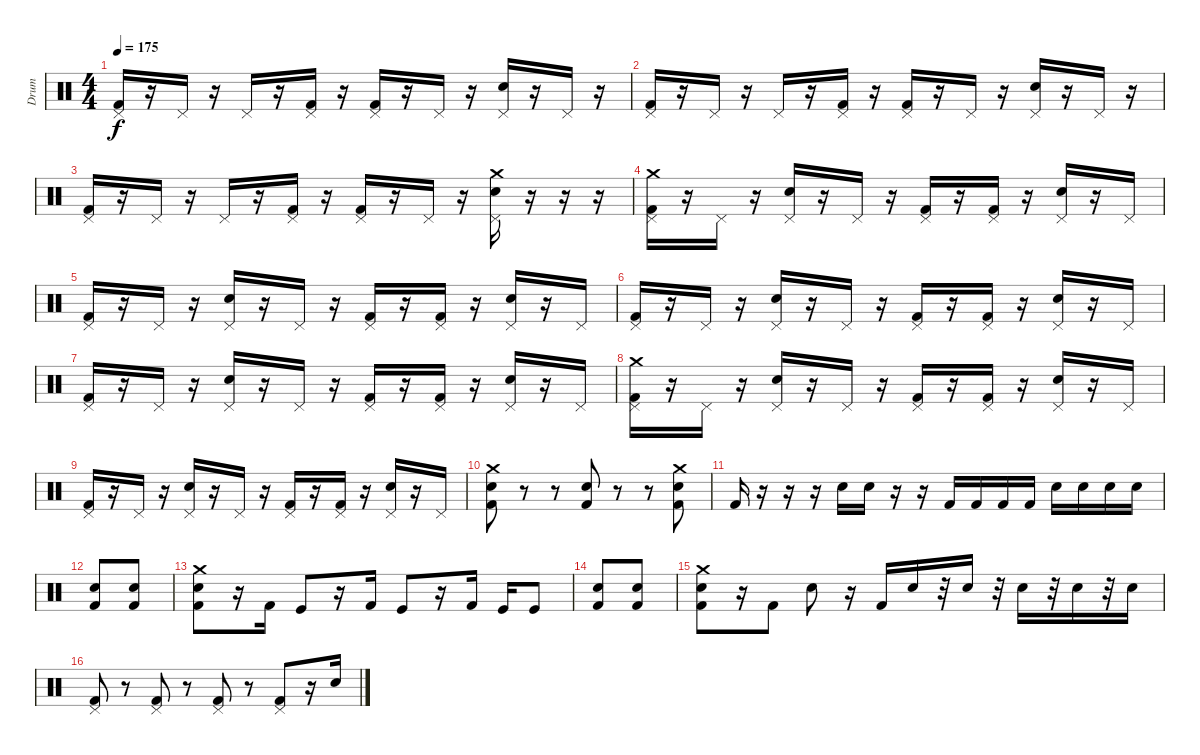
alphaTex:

\track ("Drum" "Drum") {instrument percussion}
\staff {score}
\articulation defaults
\ts (4 4)
\tempo 175
\clef neutral
\ks c
("Pedal Hi-Hat (hit)" "Kick (hit) 2").16{dy f} r.16 "Pedal Hi-Hat (hit)".16 r.16 "Pedal Hi-Hat (hit)".16 r.16 ("Pedal Hi-Hat (hit)" "Kick (hit) 2").16 r.16 ("Pedal Hi-Hat (hit)" "Kick (hit) 2").16 r.16 "Pedal Hi-Hat (hit)".16 r.16 ("Pedal Hi-Hat (hit)" "Electric Snare (hit)").16 r.16 "Pedal Hi-Hat (hit)".16 r.16 |
("Pedal Hi-Hat (hit)" "Kick (hit) 2").16 r.16 "Pedal Hi-Hat (hit)".16 r.16 "Pedal Hi-Hat (hit)".16 r.16 ("Pedal Hi-Hat (hit)" "Kick (hit) 2").16 r.16 ("Pedal Hi-Hat (hit)" "Kick (hit) 2").16 r.16 "Pedal Hi-Hat (hit)".16 r.16 ("Pedal Hi-Hat (hit)" "Electric Snare (hit)").16 r.16 "Pedal Hi-Hat (hit)".16 r.16 |
("Pedal Hi-Hat (hit)" "Kick (hit) 2").16 r.16 "Pedal Hi-Hat (hit)".16 r.16 "Pedal Hi-Hat (hit)".16 r.16 ("Pedal Hi-Hat (hit)" "Kick (hit) 2").16 r.16 ("Pedal Hi-Hat (hit)" "Kick (hit) 2").16 r.16 "Pedal Hi-Hat (hit)".16 r.16 ("Pedal Hi-Hat (hit)" "Electric Snare (hit)" "Crash medium (hit)").16 r.16 r.16 r.16 |
("Pedal Hi-Hat (hit)" "Kick (hit) 2" "Crash medium (hit)").16 r.16 "Pedal Hi-Hat (hit)".16 r.16 ("Pedal Hi-Hat (hit)" "Electric Snare (hit)").16 r.16 "Pedal Hi-Hat (hit)".16 r.16 ("Pedal Hi-Hat (hit)" "Kick (hit) 2").16 r.16 ("Pedal Hi-Hat (hit)" "Kick (hit) 2").16 r.16 ("Pedal Hi-Hat (hit)" "Electric Snare (hit)").16 r.16 "Pedal Hi-Hat (hit)".16 |
("Pedal Hi-Hat (hit)" "Kick (hit) 2").16 r.16 "Pedal Hi-Hat (hit)".16 r.16 ("Pedal Hi-Hat (hit)" "Electric Snare (hit)").16 r.16 "Pedal Hi-Hat (hit)".16 r.16 ("Pedal Hi-Hat (hit)" "Kick (hit) 2").16 r.16 ("Pedal Hi-Hat (hit)" "Kick (hit) 2").16 r.16 ("Pedal Hi-Hat (hit)" "Electric Snare (hit)").16 r.16 "Pedal Hi-Hat (hit)".16 |
("Pedal Hi-Hat (hit)" "Kick (hit) 2").16 r.16 "Pedal Hi-Hat (hit)".16 r.16 ("Pedal Hi-Hat (hit)" "Electric Snare (hit)").16 r.16 "Pedal Hi-Hat (hit)".16 r.16 ("Pedal Hi-Hat (hit)" "Kick (hit) 2").16 r.16 ("Pedal Hi-Hat (hit)" "Kick (hit) 2").16 r.16 ("Pedal Hi-Hat (hit)" "Electric Snare (hit)").16 r.16 "Pedal Hi-Hat (hit)".16 |
("Pedal Hi-Hat (hit)" "Kick (hit) 2").16 r.16 "Pedal Hi-Hat (hit)".16 r.16 ("Pedal Hi-Hat (hit)" "Electric Snare (hit)").16 r.16 "Pedal Hi-Hat (hit)".16 r.16 ("Pedal Hi-Hat (hit)" "Kick (hit) 2").16 r.16 ("Pedal Hi-Hat (hit)" "Kick (hit) 2").16 r.16 ("Pedal Hi-Hat (hit)" "Electric Snare (hit)").16 r.16 "Pedal Hi-Hat (hit)".16 |
("Pedal Hi-Hat (hit)" "Kick (hit) 2" "Crash medium (hit)").16 r.16 "Pedal Hi-Hat (hit)".16 r.16 ("Pedal Hi-Hat (hit)" "Electric Snare (hit)").16 r.16 "Pedal Hi-Hat (hit)".16 r.16 ("Pedal Hi-Hat (hit)" "Kick (hit) 2").16 r.16 ("Pedal Hi-Hat (hit)" "Kick (hit) 2").16 r.16 ("Pedal Hi-Hat (hit)" "Electric Snare (hit)").16 r.16 "Pedal Hi-Hat (hit)".16 |
("Pedal Hi-Hat (hit)" "Kick (hit) 2").16 r.16 "Pedal Hi-Hat (hit)".16 r.16 ("Pedal Hi-Hat (hit)" "Electric Snare (hit)").16 r.16 "Pedal Hi-Hat (hit)".16 r.16 ("Pedal Hi-Hat (hit)" "Kick (hit) 2").16 r.16 ("Pedal Hi-Hat (hit)" "Kick (hit) 2").16 r.16 ("Pedal Hi-Hat (hit)" "Electric Snare (hit)").16 r.16 "Pedal Hi-Hat (hit)".16 |
("Electric Snare (hit)" "Kick (hit) 2" "Crash medium (hit)").8 r.8 r.8 ("Electric Snare (hit)" "Kick (hit) 2").8 r.8 r.8 ("Electric Snare (hit)" "Kick (hit) 2" "Crash medium (hit)").8 |
"Kick (hit) 2".16 r.16 r.16 r.16 "Electric Snare (hit)".16 "Electric Snare (hit)".16 r.16 r.16 "Kick (hit) 2".16 "Kick (hit) 2".16 "Kick (hit) 2".16 "Kick (hit) 2".16 "Electric Snare (hit)".16 "Electric Snare (hit)".16 "Electric Snare (hit)".16 "Electric Snare (hit)".16 |
("Electric Snare (hit)" "Kick (hit) 2").8 ("Electric Snare (hit)" "Kick (hit) 2").8 |
("Electric Snare (hit)" "Kick (hit) 2" "Crash medium (hit)").8 r.16 "Kick (hit) 2".16 "Kick (hit)".8 r.16 "Kick (hit) 2".16 "Kick (hit)".8 r.16 "Kick (hit) 2".16 "Kick (hit)".16 "Kick (hit)".8 |
("Electric Snare (hit)" "Kick (hit) 2").8 ("Electric Snare (hit)" "Kick (hit) 2").8 |
("Electric Snare (hit)" "Kick (hit) 2" "Crash medium (hit)").8 r.16 "Kick (hit) 2".8 "Electric Snare (hit)".8 r.16 "Kick (hit) 2".16 "Electric Snare (hit)".16 r.32 "Electric Snare (hit)".16 r.32 "Electric Snare (hit)".16 r.32 "Electric Snare (hit)".16 r.32 "Electric Snare (hit)".16 |
("Pedal Hi-Hat (hit)" "Kick (hit) 2").8 r.8 ("Pedal Hi-Hat (hit)" "Kick (hit) 2").8 r.8 ("Pedal Hi-Hat (hit)" "Kick (hit) 2").8 r.8 ("Pedal Hi-Hat (hit)" "Kick (hit) 2").8 r.16 "Electric Snare (hit)".16
